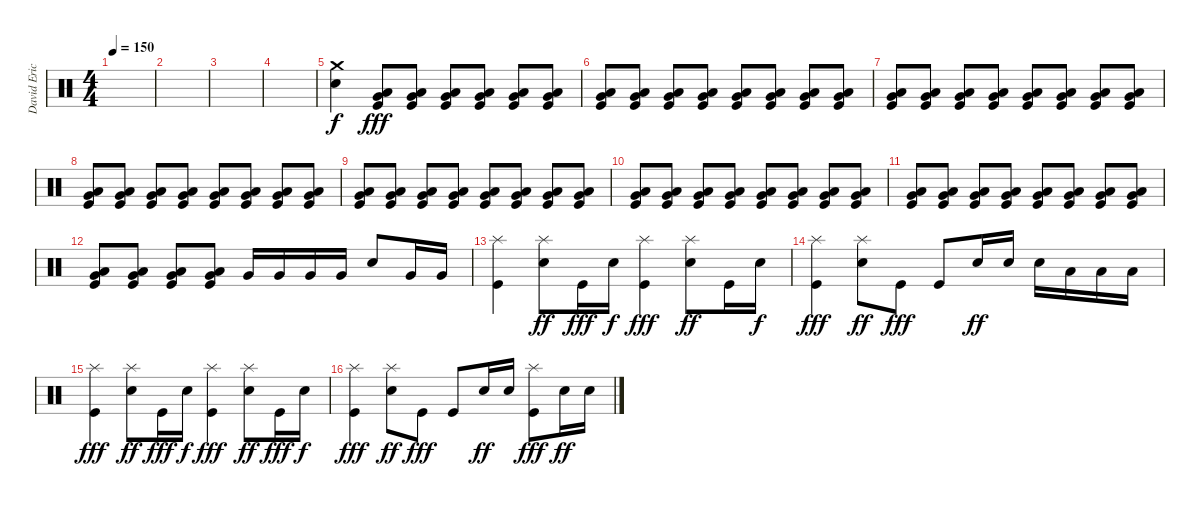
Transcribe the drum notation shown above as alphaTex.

\track ("David Eric Grohl" "David Eric") {instrument percussion}
\staff {score}
\articulation defaults
\ts (4 4)
\tempo 150
\clef neutral
\ks c
|
|
|
|
("Crash medium (hit)" "Snare (hit) 2").4 ("Low Tom (hit)" "Very Low Tom (hit)" "Kick (hit)").8{dy fff} ("Low Tom (hit)" "Very Low Tom (hit)" "Kick (hit)").8 ("Low Tom (hit)" "Very Low Tom (hit)" "Kick (hit)").8 ("Low Tom (hit)" "Very Low Tom (hit)" "Kick (hit)").8 ("Low Tom (hit)" "Very Low Tom (hit)" "Kick (hit)").8 ("Low Tom (hit)" "Very Low Tom (hit)" "Kick (hit)").8 |
("Low Tom (hit)" "Very Low Tom (hit)" "Kick (hit)").8 ("Low Tom (hit)" "Very Low Tom (hit)" "Kick (hit)").8 ("Low Tom (hit)" "Very Low Tom (hit)" "Kick (hit)").8 ("Low Tom (hit)" "Very Low Tom (hit)" "Kick (hit)").8 ("Low Tom (hit)" "Very Low Tom (hit)" "Kick (hit)").8 ("Low Tom (hit)" "Very Low Tom (hit)" "Kick (hit)").8 ("Low Tom (hit)" "Very Low Tom (hit)" "Kick (hit)").8 ("Low Tom (hit)" "Very Low Tom (hit)" "Kick (hit)").8 |
("Low Tom (hit)" "Very Low Tom (hit)" "Kick (hit)").8 ("Low Tom (hit)" "Very Low Tom (hit)" "Kick (hit)").8 ("Low Tom (hit)" "Very Low Tom (hit)" "Kick (hit)").8 ("Low Tom (hit)" "Very Low Tom (hit)" "Kick (hit)").8 ("Low Tom (hit)" "Very Low Tom (hit)" "Kick (hit)").8 ("Low Tom (hit)" "Very Low Tom (hit)" "Kick (hit)").8 ("Low Tom (hit)" "Very Low Tom (hit)" "Kick (hit)").8 ("Low Tom (hit)" "Very Low Tom (hit)" "Kick (hit)").8 |
("Low Tom (hit)" "Very Low Tom (hit)" "Kick (hit)").8 ("Low Tom (hit)" "Very Low Tom (hit)" "Kick (hit)").8 ("Low Tom (hit)" "Very Low Tom (hit)" "Kick (hit)").8 ("Low Tom (hit)" "Very Low Tom (hit)" "Kick (hit)").8 ("Low Tom (hit)" "Very Low Tom (hit)" "Kick (hit)").8 ("Low Tom (hit)" "Very Low Tom (hit)" "Kick (hit)").8 ("Low Tom (hit)" "Very Low Tom (hit)" "Kick (hit)").8 ("Low Tom (hit)" "Very Low Tom (hit)" "Kick (hit)").8 |
("Low Tom (hit)" "Very Low Tom (hit)" "Kick (hit)").8 ("Low Tom (hit)" "Very Low Tom (hit)" "Kick (hit)").8 ("Low Tom (hit)" "Very Low Tom (hit)" "Kick (hit)").8 ("Low Tom (hit)" "Very Low Tom (hit)" "Kick (hit)").8 ("Low Tom (hit)" "Very Low Tom (hit)" "Kick (hit)").8 ("Low Tom (hit)" "Very Low Tom (hit)" "Kick (hit)").8 ("Low Tom (hit)" "Very Low Tom (hit)" "Kick (hit)").8 ("Low Tom (hit)" "Very Low Tom (hit)" "Kick (hit)").8 |
("Low Tom (hit)" "Very Low Tom (hit)" "Kick (hit)").8 ("Low Tom (hit)" "Very Low Tom (hit)" "Kick (hit)").8 ("Low Tom (hit)" "Very Low Tom (hit)" "Kick (hit)").8 ("Low Tom (hit)" "Very Low Tom (hit)" "Kick (hit)").8 ("Low Tom (hit)" "Very Low Tom (hit)" "Kick (hit)").8 ("Low Tom (hit)" "Very Low Tom (hit)" "Kick (hit)").8 ("Low Tom (hit)" "Very Low Tom (hit)" "Kick (hit)").8 ("Low Tom (hit)" "Very Low Tom (hit)" "Kick (hit)").8 |
("Low Tom (hit)" "Very Low Tom (hit)" "Kick (hit)").8 ("Low Tom (hit)" "Very Low Tom (hit)" "Kick (hit)").8 ("Low Tom (hit)" "Very Low Tom (hit)" "Kick (hit)").8 ("Low Tom (hit)" "Very Low Tom (hit)" "Kick (hit)").8 ("Low Tom (hit)" "Very Low Tom (hit)" "Kick (hit)").8 ("Low Tom (hit)" "Very Low Tom (hit)" "Kick (hit)").8 ("Low Tom (hit)" "Very Low Tom (hit)" "Kick (hit)").8 ("Low Tom (hit)" "Very Low Tom (hit)" "Kick (hit)").8 |
("Low Tom (hit)" "Very Low Tom (hit)" "Kick (hit)").8 ("Low Tom (hit)" "Very Low Tom (hit)" "Kick (hit)").8 ("Low Tom (hit)" "Very Low Tom (hit)" "Kick (hit)").8 ("Low Tom (hit)" "Very Low Tom (hit)" "Kick (hit)").8 "Very Low Tom (hit)".16 "Very Low Tom (hit)".16 "Very Low Tom (hit)".16 "Very Low Tom (hit)".16 "Snare (hit) 2".8 "Very Low Tom (hit)".16 "Very Low Tom (hit)".16 |
("Splash (hit)" "Kick (hit)").4 ("Splash (hit)" "Snare (hit) 2").8{dy ff} "Kick (hit)".16{dy fff} "Snare (hit) 2".16{dy f} ("Splash (hit)" "Kick (hit)").4{dy fff} ("Splash (hit)" "Snare (hit) 2").8{dy ff} "Kick (hit)".16 "Snare (hit) 2".16{dy f} |
("Splash (hit)" "Kick (hit)").4{dy fff} ("Splash (hit)" "Snare (hit) 2").8{dy ff} "Kick (hit)".8{dy fff} "Kick (hit)".8 "Snare (hit) 2".16{dy ff} "Snare (hit) 2".16 "Snare (hit) 2".16 "Low Tom (hit)".16 "Low Tom (hit)".16 "Low Tom (hit)".16 |
("Splash (hit)" "Kick (hit)").4{dy fff} ("Splash (hit)" "Snare (hit) 2").8{dy ff} "Kick (hit)".16{dy fff} "Snare (hit) 2".16{dy f} ("Splash (hit)" "Kick (hit)").4{dy fff} ("Splash (hit)" "Snare (hit) 2").8{dy ff} "Kick (hit)".16{dy fff} "Snare (hit) 2".16{dy f} |
("Splash (hit)" "Kick (hit)").4{dy fff} ("Splash (hit)" "Snare (hit) 2").8{dy ff} "Kick (hit)".8{dy fff} "Kick (hit)".8 "Snare (hit) 2".16{dy ff} "Snare (hit) 2".16 ("Splash (hit)" "Kick (hit)").8{dy fff} "Snare (hit) 2".16{dy ff} "Snare (hit) 2".16
